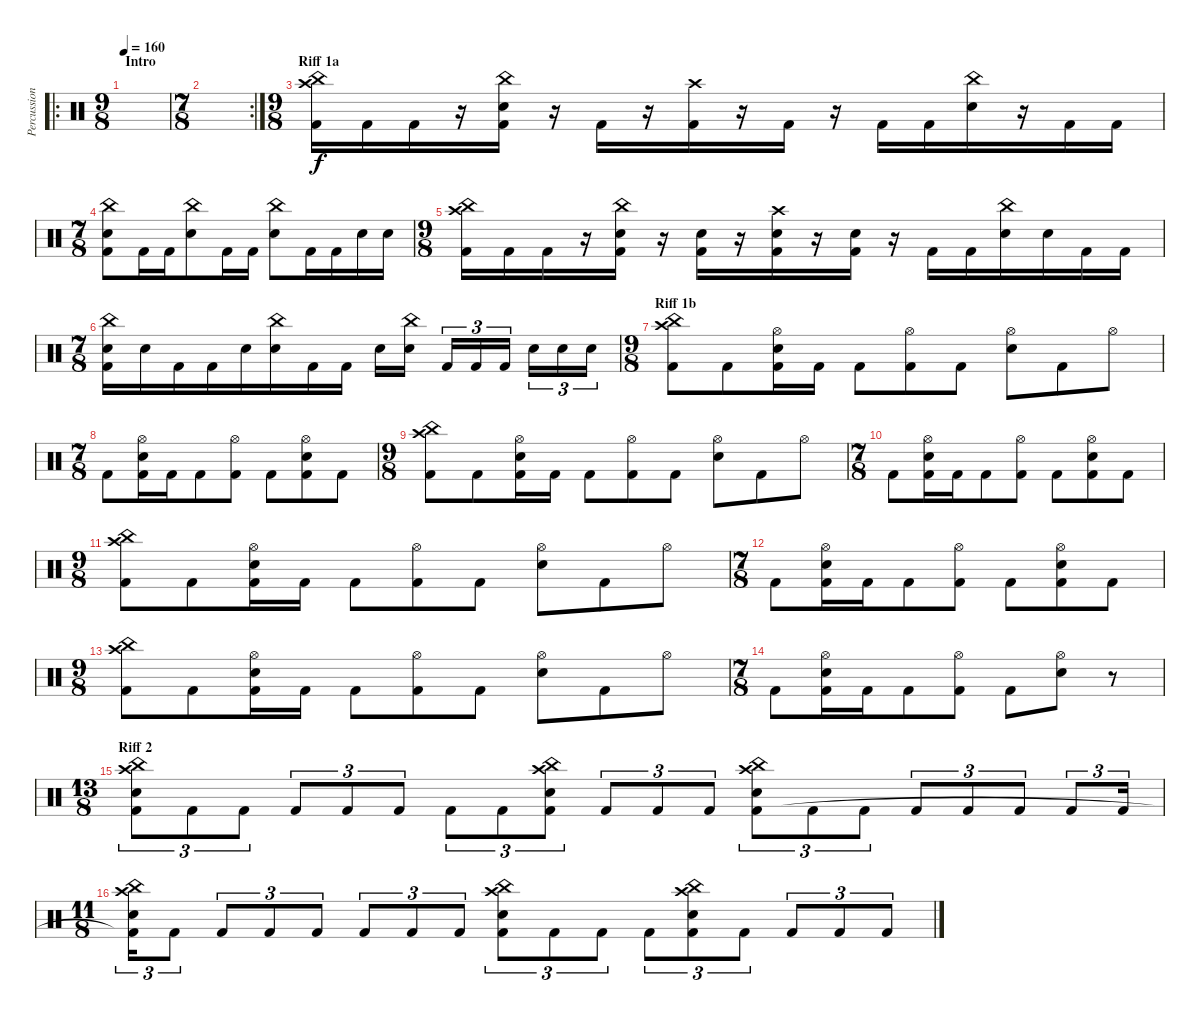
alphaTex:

\track ("Percussion" "Percussion") {instrument percussion}
\staff {score}
\articulation defaults
\ro
\ts (9 8)
\section ("" "Intro")
\tempo 160
\clef neutral
\ks c
|
\rc 2
\ts (7 8)
|
\ts (9 8)
\section ("" "Riff 1a")
("China (hit)" "Crash high (hit)" "Kick (hit) 2").16 "Kick (hit) 2".16 "Kick (hit) 2".16 r.16 ("China (hit)" "Electric Snare (hit)" "Kick (hit) 2").16 r.16 "Kick (hit) 2".16 r.16 ("Crash high (hit)" "Kick (hit) 2").16 r.16 "Kick (hit) 2".16 r.16 "Kick (hit) 2".16 "Kick (hit) 2".16 ("China (hit)" "Electric Snare (hit)").16 r.16 "Kick (hit) 2".16 "Kick (hit) 2".16 |
\ts (7 8)
("China (hit)" "Electric Snare (hit)" "Kick (hit) 2").8 "Kick (hit) 2".16 "Kick (hit) 2".16 ("China (hit)" "Electric Snare (hit)").8 "Kick (hit) 2".16 "Kick (hit) 2".16 ("China (hit)" "Electric Snare (hit)").8 "Kick (hit) 2".16 "Kick (hit) 2".16 "Electric Snare (hit)".16 "Electric Snare (hit)".16 |
\ts (9 8)
("China (hit)" "Crash high (hit)" "Kick (hit) 2").16 "Kick (hit) 2".16 "Kick (hit) 2".16 r.16 ("China (hit)" "Electric Snare (hit)" "Kick (hit) 2").16 r.16 ("Electric Snare (hit)" "Kick (hit) 2").16 r.16 ("Crash high (hit)" "Electric Snare (hit)" "Kick (hit) 2").16 r.16 ("Electric Snare (hit)" "Kick (hit) 2").16 r.16 "Kick (hit) 2".16 "Kick (hit) 2".16 ("China (hit)" "Electric Snare (hit)").16 "Electric Snare (hit)".16 "Kick (hit) 2".16 "Kick (hit) 2".16 |
\ts (7 8)
("China (hit)" "Electric Snare (hit)" "Kick (hit) 2").16 "Electric Snare (hit)".16 "Kick (hit) 2".16 "Kick (hit) 2".16 "Electric Snare (hit)".16 ("China (hit)" "Electric Snare (hit)").16 "Kick (hit) 2".16 "Kick (hit) 2".16 "Electric Snare (hit)".16 ("China (hit)" "Electric Snare (hit)").16 "Kick (hit) 2".16{tu (3 2)} "Kick (hit) 2".16{tu (3 2)} "Kick (hit) 2".16{tu (3 2)} "Electric Snare (hit)".16{tu (3 2)} "Electric Snare (hit)".16{tu (3 2)} "Electric Snare (hit)".16{tu (3 2)} |
\ts (9 8)
\section ("" "Riff 1b")
("China (hit)" "Crash high (hit)" "Kick (hit) 2").8 "Kick (hit) 2".8 ("Hi-Hat (open)" "Electric Snare (hit)" "Kick (hit) 2").16 "Kick (hit) 2".16 "Kick (hit) 2".8 ("Hi-Hat (open)" "Kick (hit) 2").8 "Kick (hit) 2".8 ("Hi-Hat (open)" "Electric Snare (hit)").8 "Kick (hit) 2".8 "Hi-Hat (open)".8 |
\ts (7 8)
"Kick (hit) 2".8 ("Hi-Hat (open)" "Electric Snare (hit)" "Kick (hit) 2").16 "Kick (hit) 2".16 "Kick (hit) 2".8 ("Hi-Hat (open)" "Kick (hit) 2").8 "Kick (hit) 2".8 ("Hi-Hat (open)" "Electric Snare (hit)" "Kick (hit) 2").8 "Kick (hit) 2".8 |
\ts (9 8)
("China (hit)" "Crash high (hit)" "Kick (hit) 2").8 "Kick (hit) 2".8 ("Hi-Hat (open)" "Electric Snare (hit)" "Kick (hit) 2").16 "Kick (hit) 2".16 "Kick (hit) 2".8 ("Hi-Hat (open)" "Kick (hit) 2").8 "Kick (hit) 2".8 ("Hi-Hat (open)" "Electric Snare (hit)").8 "Kick (hit) 2".8 "Hi-Hat (open)".8 |
\ts (7 8)
"Kick (hit) 2".8 ("Hi-Hat (open)" "Electric Snare (hit)" "Kick (hit) 2").16 "Kick (hit) 2".16 "Kick (hit) 2".8 ("Hi-Hat (open)" "Kick (hit) 2").8 "Kick (hit) 2".8 ("Hi-Hat (open)" "Electric Snare (hit)" "Kick (hit) 2").8 "Kick (hit) 2".8 |
\ts (9 8)
("China (hit)" "Crash high (hit)" "Kick (hit) 2").8 "Kick (hit) 2".8 ("Hi-Hat (open)" "Electric Snare (hit)" "Kick (hit) 2").16 "Kick (hit) 2".16 "Kick (hit) 2".8 ("Hi-Hat (open)" "Kick (hit) 2").8 "Kick (hit) 2".8 ("Hi-Hat (open)" "Electric Snare (hit)").8 "Kick (hit) 2".8 "Hi-Hat (open)".8 |
\ts (7 8)
"Kick (hit) 2".8 ("Hi-Hat (open)" "Electric Snare (hit)" "Kick (hit) 2").16 "Kick (hit) 2".16 "Kick (hit) 2".8 ("Hi-Hat (open)" "Kick (hit) 2").8 "Kick (hit) 2".8 ("Hi-Hat (open)" "Electric Snare (hit)" "Kick (hit) 2").8 "Kick (hit) 2".8 |
\ts (9 8)
("China (hit)" "Crash high (hit)" "Kick (hit) 2").8 "Kick (hit) 2".8 ("Hi-Hat (open)" "Electric Snare (hit)" "Kick (hit) 2").16 "Kick (hit) 2".16 "Kick (hit) 2".8 ("Hi-Hat (open)" "Kick (hit) 2").8 "Kick (hit) 2".8 ("Hi-Hat (open)" "Electric Snare (hit)").8 "Kick (hit) 2".8 "Hi-Hat (open)".8 |
\ts (7 8)
"Kick (hit) 2".8 ("Hi-Hat (open)" "Electric Snare (hit)" "Kick (hit) 2").16 "Kick (hit) 2".16 "Kick (hit) 2".8 ("Hi-Hat (open)" "Kick (hit) 2").8 "Kick (hit) 2".8 ("Hi-Hat (open)" "Electric Snare (hit)").8 r.8 |
\ts (13 8)
\section ("" "Riff 2")
("China (hit)" "Crash high (hit)" "Electric Snare (hit)" "Kick (hit) 2").8{tu (3 2)} "Kick (hit) 2".8{tu (3 2)} "Kick (hit) 2".8{tu (3 2)} "Kick (hit) 2".8{tu (3 2)} "Kick (hit) 2".8{tu (3 2)} "Kick (hit) 2".8{tu (3 2)} "Kick (hit) 2".8{tu (3 2)} "Kick (hit) 2".8{tu (3 2)} ("China (hit)" "Crash high (hit)" "Electric Snare (hit)" "Kick (hit) 2").8{tu (3 2)} "Kick (hit) 2".8{tu (3 2)} "Kick (hit) 2".8{tu (3 2)} "Kick (hit) 2".8{tu (3 2)} ("China (hit)" "Crash high (hit)" "Electric Snare (hit)" "Kick (hit) 2").8{tu (3 2)} "Kick (hit) 2".8{tu (3 2)} "Kick (hit) 2".8{tu (3 2)} "Kick (hit) 2".8{tu (3 2)} "Kick (hit) 2".8{tu (3 2)} "Kick (hit) 2".8{tu (3 2)} "Kick (hit) 2".8{tu (3 2)} "Kick (hit) 2".16{tu (3 2)} |
\ts (11 8)
("China (hit)" "Crash high (hit)" "Electric Snare (hit)" "Kick (hit) 2"{t}).16{tu (3 2)} "Kick (hit) 2".8{tu (3 2)} "Kick (hit) 2".8{tu (3 2)} "Kick (hit) 2".8{tu (3 2)} "Kick (hit) 2".8{tu (3 2)} "Kick (hit) 2".8{tu (3 2)} "Kick (hit) 2".8{tu (3 2)} "Kick (hit) 2".8{tu (3 2)} ("China (hit)" "Crash high (hit)" "Electric Snare (hit)" "Kick (hit) 2").8{tu (3 2)} "Kick (hit) 2".8{tu (3 2)} "Kick (hit) 2".8{tu (3 2)} "Kick (hit) 2".8{tu (3 2)} ("China (hit)" "Crash high (hit)" "Electric Snare (hit)" "Kick (hit) 2").8{tu (3 2)} "Kick (hit) 2".8{tu (3 2)} "Kick (hit) 2".8{tu (3 2)} "Kick (hit) 2".8{tu (3 2)} "Kick (hit) 2".8{tu (3 2)}
